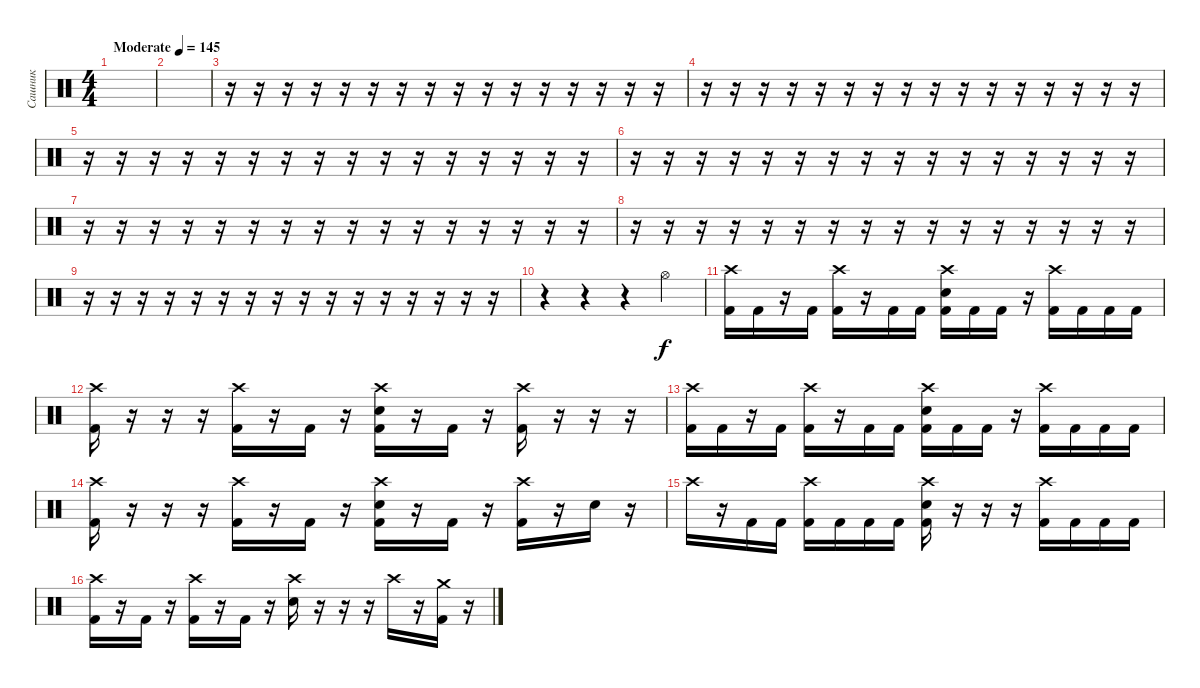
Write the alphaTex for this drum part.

\track ("Сашник" "Сашник") {instrument percussion}
\staff {score}
\articulation defaults
\ts (4 4)
\tempo (145 "Moderate")
\clef neutral
\ks c
|
|
r.16 r.16 r.16 r.16 r.16 r.16 r.16 r.16 r.16 r.16 r.16 r.16 r.16 r.16 r.16 r.16 |
r.16 r.16 r.16 r.16 r.16 r.16 r.16 r.16 r.16 r.16 r.16 r.16 r.16 r.16 r.16 r.16 |
r.16 r.16 r.16 r.16 r.16 r.16 r.16 r.16 r.16 r.16 r.16 r.16 r.16 r.16 r.16 r.16 |
r.16 r.16 r.16 r.16 r.16 r.16 r.16 r.16 r.16 r.16 r.16 r.16 r.16 r.16 r.16 r.16 |
r.16 r.16 r.16 r.16 r.16 r.16 r.16 r.16 r.16 r.16 r.16 r.16 r.16 r.16 r.16 r.16 |
r.16 r.16 r.16 r.16 r.16 r.16 r.16 r.16 r.16 r.16 r.16 r.16 r.16 r.16 r.16 r.16 |
r.16 r.16 r.16 r.16 r.16 r.16 r.16 r.16 r.16 r.16 r.16 r.16 r.16 r.16 r.16 r.16 |
r.4 r.4 r.4 "Hi-Hat (open)".4 |
("Crash high (hit)" "Kick (hit) 2").16 "Kick (hit) 2".16 r.16 "Kick (hit) 2".16 ("Crash high (hit)" "Kick (hit) 2").16 r.16 "Kick (hit) 2".16 "Kick (hit) 2".16 ("Crash high (hit)" "Electric Snare (hit)" "Kick (hit) 2").16 "Kick (hit) 2".16 "Kick (hit) 2".16 r.16 ("Crash high (hit)" "Kick (hit) 2").16 "Kick (hit) 2".16 "Kick (hit) 2".16 "Kick (hit) 2".16 |
("Crash high (hit)" "Kick (hit) 2").16 r.16 r.16 r.16 ("Crash high (hit)" "Kick (hit) 2").16 r.16 "Kick (hit) 2".16 r.16 ("Crash high (hit)" "Electric Snare (hit)" "Kick (hit) 2").16 r.16 "Kick (hit) 2".16 r.16 ("Crash high (hit)" "Kick (hit) 2").16 r.16 r.16 r.16 |
("Crash high (hit)" "Kick (hit) 2").16 "Kick (hit) 2".16 r.16 "Kick (hit) 2".16 ("Crash high (hit)" "Kick (hit) 2").16 r.16 "Kick (hit) 2".16 "Kick (hit) 2".16 ("Crash high (hit)" "Electric Snare (hit)" "Kick (hit) 2").16 "Kick (hit) 2".16 "Kick (hit) 2".16 r.16 ("Crash high (hit)" "Kick (hit) 2").16 "Kick (hit) 2".16 "Kick (hit) 2".16 "Kick (hit) 2".16 |
("Crash high (hit)" "Kick (hit) 2").16 r.16 r.16 r.16 ("Crash high (hit)" "Kick (hit) 2").16 r.16 "Kick (hit) 2".16 r.16 ("Crash high (hit)" "Electric Snare (hit)" "Kick (hit) 2").16 r.16 "Kick (hit) 2".16 r.16 ("Crash high (hit)" "Kick (hit) 2").16 r.16 "Electric Snare (hit)".16 r.16 |
"Crash high (hit)".16 r.16 "Kick (hit) 2".16 "Kick (hit) 2".16 ("Crash high (hit)" "Kick (hit) 2").16 "Kick (hit) 2".16 "Kick (hit) 2".16 "Kick (hit) 2".16 ("Crash high (hit)" "Electric Snare (hit)" "Kick (hit) 2").16 r.16 r.16 r.16 ("Crash high (hit)" "Kick (hit) 2").16 "Kick (hit) 2".16 "Kick (hit) 2".16 "Kick (hit) 2".16 |
("Crash high (hit)" "Kick (hit) 2").16 r.16 "Kick (hit) 2".16 r.16 ("Crash high (hit)" "Kick (hit) 2").16 r.16 "Kick (hit) 2".16 r.16 ("Crash high (hit)" "Electric Snare (hit)").16 r.16 r.16 r.16 "Crash high (hit)".16 r.16 ("Crash medium (hit)" "Kick (hit) 2").16 r.16
